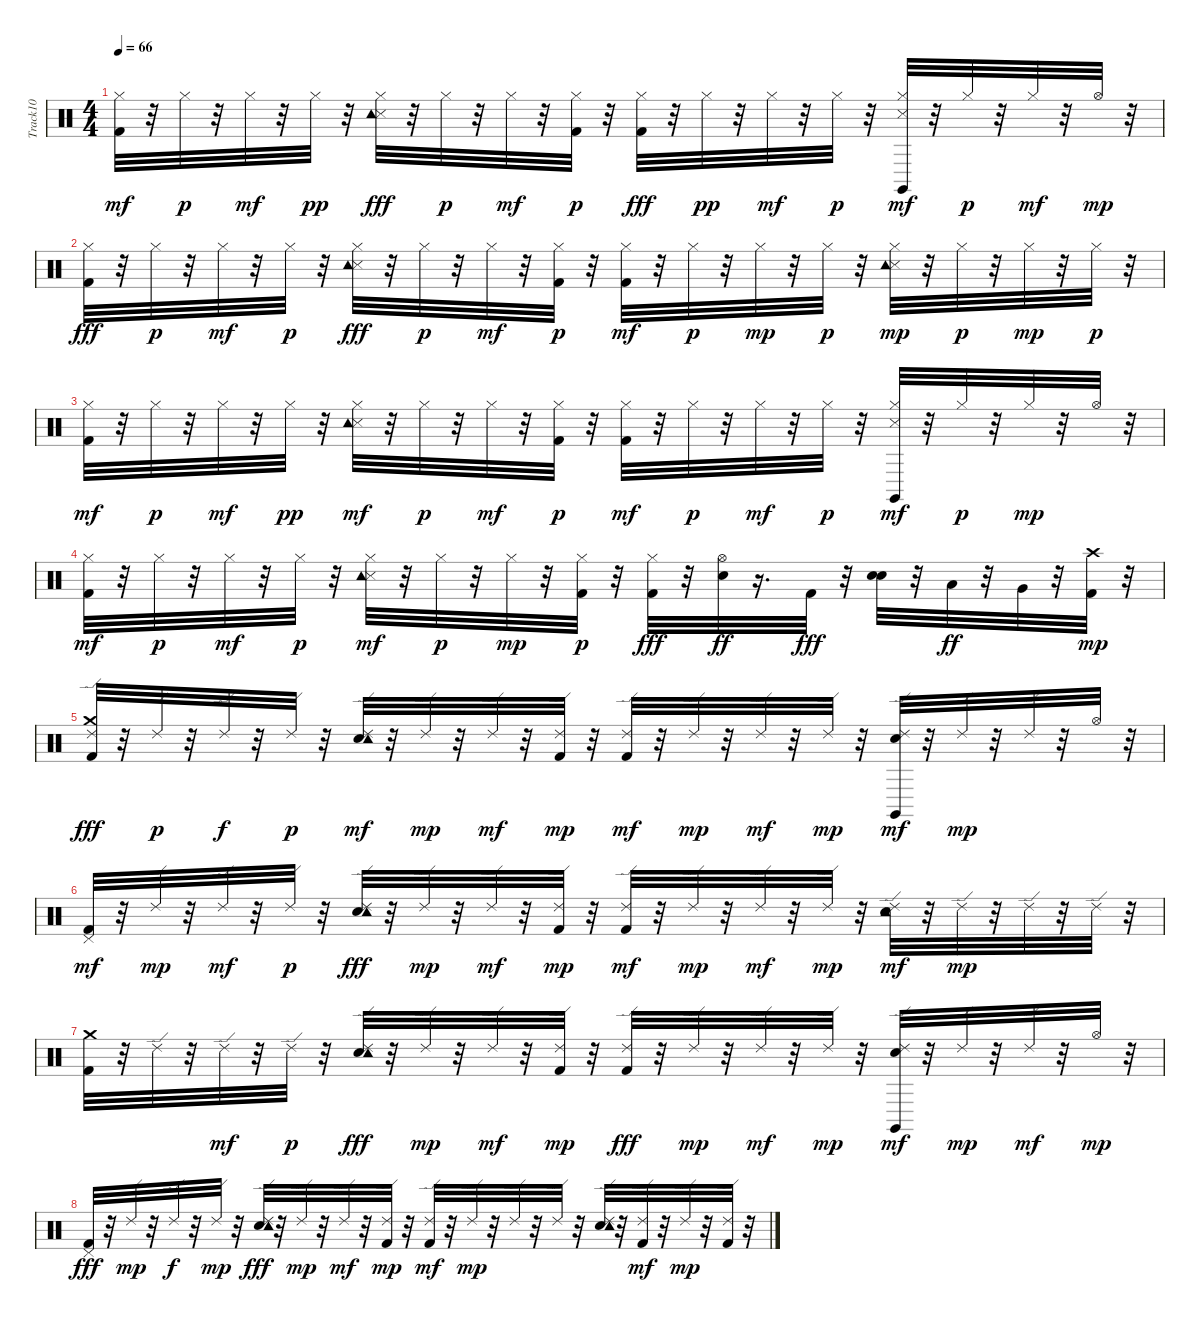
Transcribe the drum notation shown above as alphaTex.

\track ("Track10" "Track10") {instrument percussion}
\staff {score}
\articulation defaults
\ts (4 4)
\tempo 66
\clef neutral
\ks c
("Kick (hit) 2" "Hi-Hat (closed)").32{dy mf} r.32 "Hi-Hat (closed)".32{dy p} r.32 "Hi-Hat (closed)".32{dy mf} r.32 "Hi-Hat (closed)".32{dy pp} r.32 ("Snare (side stick) 3" "Tambourine (hit)" "Hi-Hat (closed)").32{dy fff} r.32 "Hi-Hat (closed)".32{dy p} r.32 "Hi-Hat (closed)".32{dy mf} r.32 ("Kick (hit) 2" "Hi-Hat (closed)").32{dy p} r.32 ("Kick (hit) 2" "Hi-Hat (closed)").32{dy fff} r.32 "Hi-Hat (closed)".32{dy pp} r.32 "Hi-Hat (closed)".32{dy mf} r.32 "Hi-Hat (closed)".32{dy p} r.32 ("Snare (side stick) 3" "Claves (hit)" "Hi-Hat (closed)").32{dy mf} r.32 "Hi-Hat (closed)".32{dy p} r.32 "Hi-Hat (closed)".32{dy mf} r.32 "Hi-Hat (open)".32{dy mp} r.32 |
("Kick (hit) 2" "Hi-Hat (closed)").32{dy fff} r.32 "Hi-Hat (closed)".32{dy p} r.32 "Hi-Hat (closed)".32{dy mf} r.32 "Hi-Hat (closed)".32{dy p} r.32 ("Snare (side stick) 3" "Tambourine (hit)" "Hi-Hat (closed)").32{dy fff} r.32 "Hi-Hat (closed)".32{dy p} r.32 "Hi-Hat (closed)".32{dy mf} r.32 ("Kick (hit) 2" "Hi-Hat (closed)").32{dy p} r.32 ("Kick (hit) 2" "Hi-Hat (closed)").32{dy mf} r.32 "Hi-Hat (closed)".32{dy p} r.32 "Hi-Hat (closed)".32{dy mp} r.32 "Hi-Hat (closed)".32{dy p} r.32 ("Snare (side stick) 3" "Tambourine (hit)" "Hi-Hat (closed)").32{dy mp} r.32 "Hi-Hat (closed)".32{dy p} r.32 "Hi-Hat (closed)".32{dy mp} r.32 "Hi-Hat (closed)".32{dy p} r.32 |
("Kick (hit) 2" "Hi-Hat (closed)").32{dy mf} r.32 "Hi-Hat (closed)".32{dy p} r.32 "Hi-Hat (closed)".32{dy mf} r.32 "Hi-Hat (closed)".32{dy pp} r.32 ("Snare (side stick) 3" "Tambourine (hit)" "Hi-Hat (closed)").32{dy mf} r.32 "Hi-Hat (closed)".32{dy p} r.32 "Hi-Hat (closed)".32{dy mf} r.32 ("Kick (hit) 2" "Hi-Hat (closed)").32{dy p} r.32 ("Kick (hit) 2" "Hi-Hat (closed)").32{dy mf} r.32 "Hi-Hat (closed)".32{dy p} r.32 "Hi-Hat (closed)".32{dy mf} r.32 "Hi-Hat (closed)".32{dy p} r.32 ("Snare (side stick) 3" "Claves (hit)" "Hi-Hat (closed)").32{dy mf} r.32 "Hi-Hat (closed)".32{dy p} r.32 "Hi-Hat (closed)".32{dy mp} r.32 "Hi-Hat (open)".32 r.32 |
("Kick (hit) 2" "Hi-Hat (closed)").32{dy mf} r.32 "Hi-Hat (closed)".32{dy p} r.32 "Hi-Hat (closed)".32{dy mf} r.32 "Hi-Hat (closed)".32{dy p} r.32 ("Snare (side stick) 3" "Tambourine (hit)" "Hi-Hat (closed)").32{dy mf} r.32 "Hi-Hat (closed)".32{dy p} r.32 "Hi-Hat (closed)".32{dy mp} r.32 ("Kick (hit) 2" "Hi-Hat (closed)").32{dy p} r.32 ("Kick (hit) 2" "Hi-Hat (closed)").32{dy fff} r.32 ("Snare (hit) 2" "Hi-Hat (open)").32{dy ff} r.16{d} "Kick (hit) 2".32{dy fff} r.32 ("Snare (hit) 2" "Snare (hit) 2").32 r.32 "Low Tom (hit)".32{dy ff} r.32 "Very Low Tom (hit)".32 r.32 ("Kick (hit) 2" "Crash high (hit)").32{dy mp} r.32 |
("Crash medium (hit)" "Kick (hit) 2" "Ride (edge) 2").32{dy fff} r.32 "Ride (edge) 2".32{dy p} r.32 "Ride (edge) 2".32{dy f} r.32 "Ride (edge) 2".32{dy p} r.32 ("Snare (hit) 2" "Ride (edge) 2" "Tambourine (hit)").32{dy mf} r.32 "Ride (edge) 2".32{dy mp} r.32 "Ride (edge) 2".32{dy mf} r.32 ("Kick (hit) 2" "Ride (edge) 2").32{dy mp} r.32 ("Kick (hit) 2" "Ride (edge) 2").32{dy mf} r.32 "Ride (edge) 2".32{dy mp} r.32 "Ride (edge) 2".32{dy mf} r.32 "Ride (edge) 2".32{dy mp} r.32 ("Snare (hit) 2" "Ride (edge) 2" "Claves (hit)").32{dy mf} r.32 "Ride (edge) 2".32{dy mp} r.32 "Ride (edge) 2".32 r.32 "Hi-Hat (open)".32 r.32 |
("Kick (hit) 2" "Pedal Hi-Hat (hit)").32{dy mf} r.32 "Ride (edge) 2".32{dy mp} r.32 "Ride (edge) 2".32{dy mf} r.32 "Ride (edge) 2".32{dy p} r.32 ("Snare (hit) 2" "Ride (edge) 2" "Tambourine (hit)").32{dy fff} r.32 "Ride (edge) 2".32{dy mp} r.32 "Ride (edge) 2".32{dy mf} r.32 ("Kick (hit) 2" "Ride (edge) 2").32{dy mp} r.32 ("Kick (hit) 2" "Ride (edge) 2").32{dy mf} r.32 "Ride (edge) 2".32{dy mp} r.32 "Ride (edge) 2".32{dy mf} r.32 "Ride (edge) 2".32{dy mp} r.32 ("Snare (hit) 2" "Ride (edge) 2" "Tambourine (hit)").32{dy mf} r.32 "Ride (edge) 2".32{dy mp} r.32 "Ride (edge) 2".32 r.32 "Ride (edge) 2".32 r.32 |
("Kick (hit) 2" "Crash medium (hit)").32 r.32 "Ride (edge) 2".32 r.32 "Ride (edge) 2".32{dy mf} r.32 "Ride (edge) 2".32{dy p} r.32 ("Snare (hit) 2" "Ride (edge) 2" "Tambourine (hit)").32{dy fff} r.32 "Ride (edge) 2".32{dy mp} r.32 "Ride (edge) 2".32{dy mf} r.32 ("Kick (hit) 2" "Ride (edge) 2").32{dy mp} r.32 ("Kick (hit) 2" "Ride (edge) 2").32{dy fff} r.32 "Ride (edge) 2".32{dy mp} r.32 "Ride (edge) 2".32{dy mf} r.32 "Ride (edge) 2".32{dy mp} r.32 ("Snare (hit) 2" "Ride (edge) 2" "Claves (hit)").32{dy mf} r.32 "Ride (edge) 2".32{dy mp} r.32 "Ride (edge) 2".32{dy mf} r.32 "Hi-Hat (open)".32{dy mp} r.32 |
("Kick (hit) 2" "Pedal Hi-Hat (hit)").32{dy fff} r.32 "Ride (edge) 2".32{dy mp} r.32 "Ride (edge) 2".32{dy f} r.32 "Ride (edge) 2".32{dy mp} r.32 ("Snare (hit) 2" "Ride (edge) 2" "Tambourine (hit)").32{dy fff} r.32 "Ride (edge) 2".32{dy mp} r.32 "Ride (edge) 2".32{dy mf} r.32 ("Kick (hit) 2" "Ride (edge) 2").32{dy mp} r.32 ("Kick (hit) 2" "Ride (edge) 2").32{dy mf} r.32 "Ride (edge) 2".32{dy mp} r.32 "Ride (edge) 2".32 r.32 "Ride (edge) 2".32 r.32 ("Snare (hit) 2" "Ride (edge) 2" "Tambourine (hit)").32 r.32 ("Ride (edge) 2" "Kick (hit) 2").32{dy mf} r.32 "Ride (edge) 2".32{dy mp} r.32 ("Ride (edge) 2" "Kick (hit) 2").32 r.32
